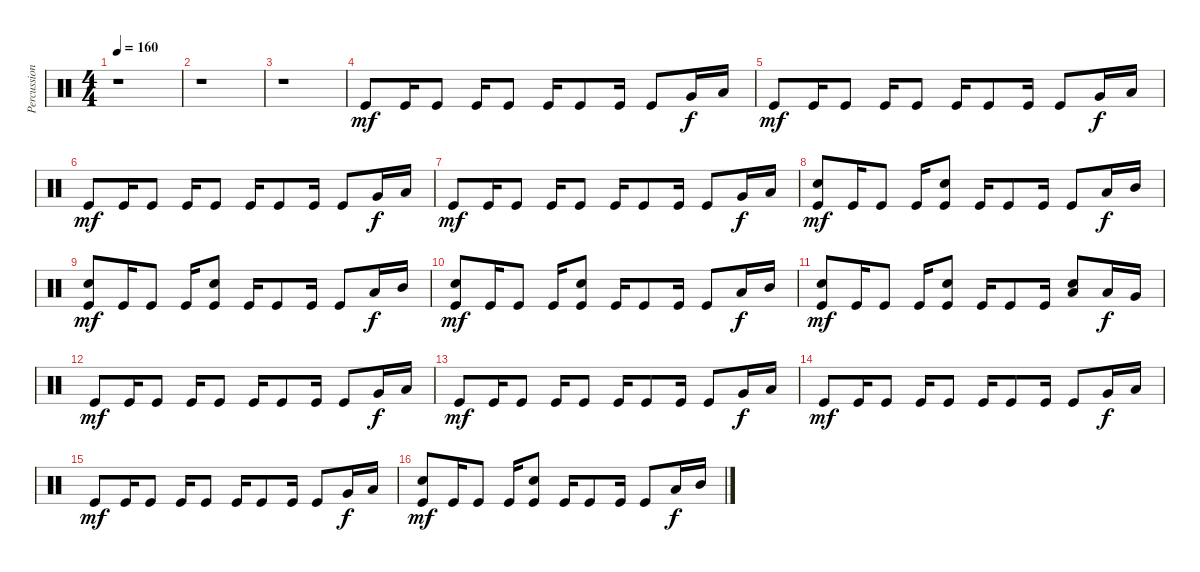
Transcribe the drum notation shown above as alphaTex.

\track ("Percussion" "Percussion") {instrument percussion}
\staff {score}
\articulation defaults
\ts (4 4)
\tempo 160
\clef neutral
\ks c
r.1{dy mf} |
r.1 |
r.1 |
"Kick (hit)".8{volume 12} "Kick (hit)".16 "Kick (hit)".8 "Kick (hit)".16 "Kick (hit)".8 "Kick (hit)".16 "Kick (hit)".8 "Kick (hit)".16 "Kick (hit)".8 "Very Low Tom (hit)".16{dy f} "Low Tom (hit)".16 |
"Kick (hit)".8{dy mf} "Kick (hit)".16 "Kick (hit)".8 "Kick (hit)".16 "Kick (hit)".8 "Kick (hit)".16 "Kick (hit)".8 "Kick (hit)".16 "Kick (hit)".8 "Very Low Tom (hit)".16{dy f} "Low Tom (hit)".16 |
"Kick (hit)".8{dy mf} "Kick (hit)".16 "Kick (hit)".8 "Kick (hit)".16 "Kick (hit)".8 "Kick (hit)".16 "Kick (hit)".8 "Kick (hit)".16 "Kick (hit)".8 "Very Low Tom (hit)".16{dy f} "Low Tom (hit)".16 |
"Kick (hit)".8{dy mf} "Kick (hit)".16 "Kick (hit)".8 "Kick (hit)".16 "Kick (hit)".8 "Kick (hit)".16 "Kick (hit)".8 "Kick (hit)".16 "Kick (hit)".8 "Very Low Tom (hit)".16{dy f} "Low Tom (hit)".16 |
("Kick (hit)" "Electric Snare (hit)").8{dy mf} "Kick (hit)".16 "Kick (hit)".8 "Kick (hit)".16 ("Kick (hit)" "Snare (hit) 2").8 "Kick (hit)".16 "Kick (hit)".8 "Kick (hit)".16 "Kick (hit)".8 "Low Tom (hit)".16{dy f} "Mid Tom (hit)".16 |
("Kick (hit)" "Electric Snare (hit)").8{dy mf} "Kick (hit)".16 "Kick (hit)".8 "Kick (hit)".16 ("Kick (hit)" "Electric Snare (hit)").8 "Kick (hit)".16 "Kick (hit)".8 "Kick (hit)".16 "Kick (hit)".8 "Low Tom (hit)".16{dy f} "Mid Tom (hit)".16 |
("Kick (hit)" "Electric Snare (hit)").8{dy mf} "Kick (hit)".16 "Kick (hit)".8 "Kick (hit)".16 ("Kick (hit)" "Snare (hit) 2").8 "Kick (hit)".16 "Kick (hit)".8 "Kick (hit)".16 "Kick (hit)".8 "Low Tom (hit)".16{dy f} "Mid Tom (hit)".16 |
("Kick (hit)" "Electric Snare (hit)").8{dy mf} "Kick (hit)".16 "Kick (hit)".8 "Kick (hit)".16 ("Kick (hit)" "Electric Snare (hit)").8 "Kick (hit)".16 "Kick (hit)".8 "Kick (hit)".16 ("Low Tom (hit)" "Electric Snare (hit)").8 "Low Tom (hit)".16{dy f} "Very Low Tom (hit)".16 |
"Kick (hit)".8{dy mf} "Kick (hit)".16 "Kick (hit)".8 "Kick (hit)".16 "Kick (hit)".8 "Kick (hit)".16 "Kick (hit)".8 "Kick (hit)".16 "Kick (hit)".8 "Very Low Tom (hit)".16{dy f} "Low Tom (hit)".16 |
"Kick (hit)".8{dy mf} "Kick (hit)".16 "Kick (hit)".8 "Kick (hit)".16 "Kick (hit)".8 "Kick (hit)".16 "Kick (hit)".8 "Kick (hit)".16 "Kick (hit)".8 "Very Low Tom (hit)".16{dy f} "Low Tom (hit)".16 |
"Kick (hit)".8{dy mf} "Kick (hit)".16 "Kick (hit)".8 "Kick (hit)".16 "Kick (hit)".8 "Kick (hit)".16 "Kick (hit)".8 "Kick (hit)".16 "Kick (hit)".8 "Very Low Tom (hit)".16{dy f} "Low Tom (hit)".16 |
"Kick (hit)".8{dy mf} "Kick (hit)".16 "Kick (hit)".8 "Kick (hit)".16 "Kick (hit)".8 "Kick (hit)".16 "Kick (hit)".8 "Kick (hit)".16 "Kick (hit)".8 "Very Low Tom (hit)".16{dy f} "Low Tom (hit)".16 |
("Kick (hit)" "Electric Snare (hit)").8{dy mf} "Kick (hit)".16 "Kick (hit)".8 "Kick (hit)".16 ("Kick (hit)" "Snare (hit) 2").8 "Kick (hit)".16 "Kick (hit)".8 "Kick (hit)".16 "Kick (hit)".8 "Low Tom (hit)".16{dy f} "Mid Tom (hit)".16
